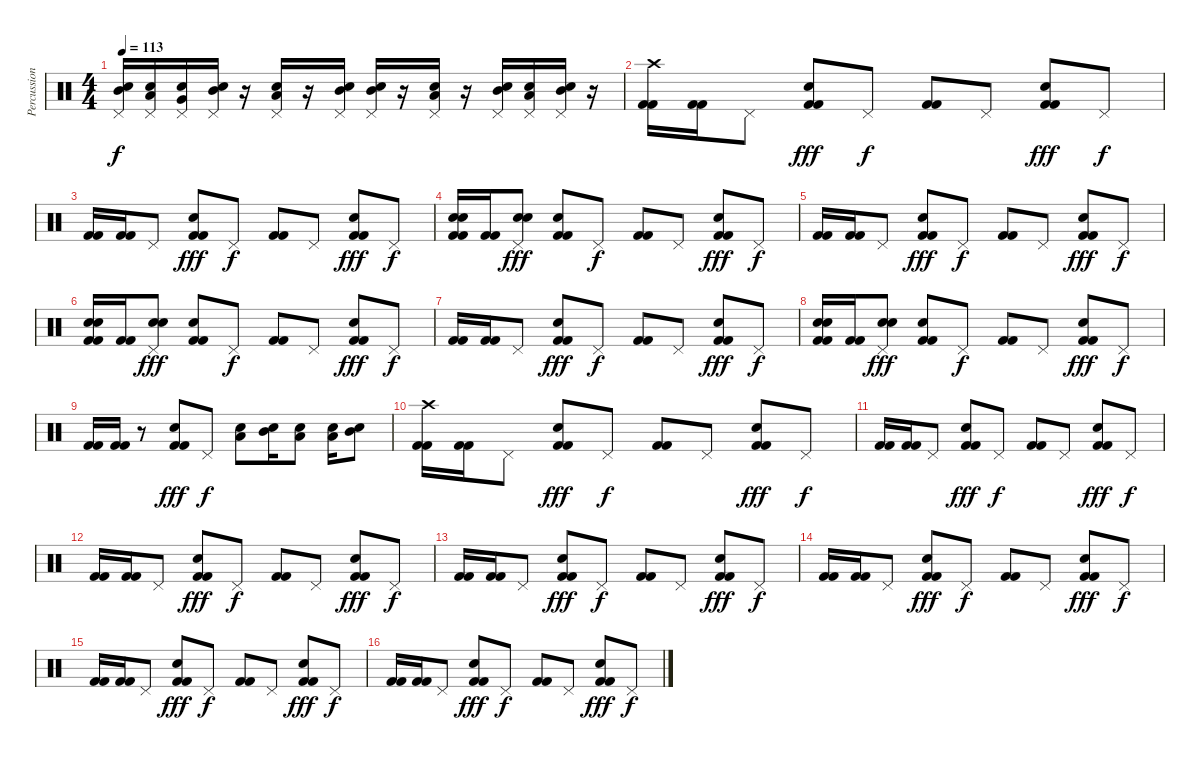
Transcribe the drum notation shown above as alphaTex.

\track ("Percussion" "Percussion") {instrument percussion}
\staff {score}
\articulation defaults
\ts (4 4)
\tempo 113
\clef neutral
\ks c
("Pedal Hi-Hat (hit)" "Electric Snare (hit)" "Mid Tom (hit)").16{dy f} ("Pedal Hi-Hat (hit)" "Electric Snare (hit)" "Low Tom (hit)").16 ("Pedal Hi-Hat (hit)" "Electric Snare (hit)" "Very Low Tom (hit)").16 ("Pedal Hi-Hat (hit)" "Electric Snare (hit)" "Mid Tom (hit)").16 r.16 ("Pedal Hi-Hat (hit)" "Electric Snare (hit)" "Low Tom (hit)").16 r.16 ("Pedal Hi-Hat (hit)" "Electric Snare (hit)" "Mid Tom (hit)").16 ("Pedal Hi-Hat (hit)" "Electric Snare (hit)" "Mid Tom (hit)").16 r.16 ("Pedal Hi-Hat (hit)" "Electric Snare (hit)" "Low Tom (hit)").16 r.16 ("Pedal Hi-Hat (hit)" "Electric Snare (hit)" "Mid Tom (hit)").16 ("Pedal Hi-Hat (hit)" "Electric Snare (hit)" "Low Tom (hit)").16 ("Pedal Hi-Hat (hit)" "Electric Snare (hit)" "Mid Tom (hit)").16 r.16 |
("Crash high (hit)" "Kick (hit) 2" "Kick (hit) 2").16 ("Kick (hit) 2" "Kick (hit) 2").16 "Pedal Hi-Hat (hit)".8 ("Electric Snare (hit)" "Kick (hit) 2" "Kick (hit) 2").8{dy fff} "Pedal Hi-Hat (hit)".8{dy f} ("Kick (hit) 2" "Kick (hit) 2").8 "Pedal Hi-Hat (hit)".8 ("Electric Snare (hit)" "Kick (hit) 2" "Kick (hit) 2").8{dy fff} "Pedal Hi-Hat (hit)".8{dy f} |
("Kick (hit) 2" "Kick (hit) 2").16 ("Kick (hit) 2" "Kick (hit) 2").16 "Pedal Hi-Hat (hit)".8 ("Electric Snare (hit)" "Kick (hit) 2" "Kick (hit) 2").8{dy fff} "Pedal Hi-Hat (hit)".8{dy f} ("Kick (hit) 2" "Kick (hit) 2").8 "Pedal Hi-Hat (hit)".8 ("Electric Snare (hit)" "Kick (hit) 2" "Kick (hit) 2").8{dy fff} "Pedal Hi-Hat (hit)".8{dy f} |
("Hand Clap (hit)" "Kick (hit) 2" "Kick (hit) 2" "Hand Clap (hit)").16 ("Kick (hit) 2" "Kick (hit) 2").16 ("Pedal Hi-Hat (hit)" "Hand Clap (hit)" "Hand Clap (hit)").8{dy fff} ("Electric Snare (hit)" "Kick (hit) 2" "Kick (hit) 2").8 "Pedal Hi-Hat (hit)".8{dy f} ("Kick (hit) 2" "Kick (hit) 2").8 "Pedal Hi-Hat (hit)".8 ("Electric Snare (hit)" "Kick (hit) 2" "Kick (hit) 2").8{dy fff} "Pedal Hi-Hat (hit)".8{dy f} |
("Kick (hit) 2" "Kick (hit) 2").16 ("Kick (hit) 2" "Kick (hit) 2").16 "Pedal Hi-Hat (hit)".8 ("Electric Snare (hit)" "Kick (hit) 2" "Kick (hit) 2").8{dy fff} "Pedal Hi-Hat (hit)".8{dy f} ("Kick (hit) 2" "Kick (hit) 2").8 "Pedal Hi-Hat (hit)".8 ("Electric Snare (hit)" "Kick (hit) 2" "Kick (hit) 2").8{dy fff} "Pedal Hi-Hat (hit)".8{dy f} |
("Hand Clap (hit)" "Kick (hit) 2" "Kick (hit) 2" "Hand Clap (hit)").16 ("Kick (hit) 2" "Kick (hit) 2").16 ("Pedal Hi-Hat (hit)" "Hand Clap (hit)" "Hand Clap (hit)").8{dy fff} ("Electric Snare (hit)" "Kick (hit) 2" "Kick (hit) 2").8 "Pedal Hi-Hat (hit)".8{dy f} ("Kick (hit) 2" "Kick (hit) 2").8 "Pedal Hi-Hat (hit)".8 ("Electric Snare (hit)" "Kick (hit) 2" "Kick (hit) 2").8{dy fff} "Pedal Hi-Hat (hit)".8{dy f} |
("Kick (hit) 2" "Kick (hit) 2").16 ("Kick (hit) 2" "Kick (hit) 2").16 "Pedal Hi-Hat (hit)".8 ("Electric Snare (hit)" "Kick (hit) 2" "Kick (hit) 2").8{dy fff} "Pedal Hi-Hat (hit)".8{dy f} ("Kick (hit) 2" "Kick (hit) 2").8 "Pedal Hi-Hat (hit)".8 ("Electric Snare (hit)" "Kick (hit) 2" "Kick (hit) 2").8{dy fff} "Pedal Hi-Hat (hit)".8{dy f} |
("Hand Clap (hit)" "Kick (hit) 2" "Kick (hit) 2" "Hand Clap (hit)").16 ("Kick (hit) 2" "Kick (hit) 2").16 ("Pedal Hi-Hat (hit)" "Hand Clap (hit)" "Hand Clap (hit)").8{dy fff} ("Electric Snare (hit)" "Kick (hit) 2" "Kick (hit) 2").8 "Pedal Hi-Hat (hit)".8{dy f} ("Kick (hit) 2" "Kick (hit) 2").8 "Pedal Hi-Hat (hit)".8 ("Electric Snare (hit)" "Kick (hit) 2" "Kick (hit) 2").8{dy fff} "Pedal Hi-Hat (hit)".8{dy f} |
("Kick (hit) 2" "Kick (hit) 2").16 ("Kick (hit) 2" "Kick (hit) 2").16 r.8 ("Electric Snare (hit)" "Kick (hit) 2" "Kick (hit) 2").8{dy fff} "Pedal Hi-Hat (hit)".8{dy f} ("Electric Snare (hit)" "Low Tom (hit)").8 ("Electric Snare (hit)" "Mid Tom (hit)").16 ("Electric Snare (hit)" "Low Tom (hit)").8 ("Electric Snare (hit)" "Low Tom (hit)").16 ("Electric Snare (hit)" "Mid Tom (hit)").8 |
("Crash high (hit)" "Kick (hit) 2" "Kick (hit) 2").16 ("Kick (hit) 2" "Kick (hit) 2").16 "Pedal Hi-Hat (hit)".8 ("Electric Snare (hit)" "Kick (hit) 2" "Kick (hit) 2").8{dy fff} "Pedal Hi-Hat (hit)".8{dy f} ("Kick (hit) 2" "Kick (hit) 2").8 "Pedal Hi-Hat (hit)".8 ("Electric Snare (hit)" "Kick (hit) 2" "Kick (hit) 2").8{dy fff} "Pedal Hi-Hat (hit)".8{dy f} |
("Kick (hit) 2" "Kick (hit) 2").16 ("Kick (hit) 2" "Kick (hit) 2").16 "Pedal Hi-Hat (hit)".8 ("Electric Snare (hit)" "Kick (hit) 2" "Kick (hit) 2").8{dy fff} "Pedal Hi-Hat (hit)".8{dy f} ("Kick (hit) 2" "Kick (hit) 2").8 "Pedal Hi-Hat (hit)".8 ("Electric Snare (hit)" "Kick (hit) 2" "Kick (hit) 2").8{dy fff} "Pedal Hi-Hat (hit)".8{dy f} |
("Kick (hit) 2" "Kick (hit) 2").16 ("Kick (hit) 2" "Kick (hit) 2").16 "Pedal Hi-Hat (hit)".8 ("Electric Snare (hit)" "Kick (hit) 2" "Kick (hit) 2").8{dy fff} "Pedal Hi-Hat (hit)".8{dy f} ("Kick (hit) 2" "Kick (hit) 2").8 "Pedal Hi-Hat (hit)".8 ("Electric Snare (hit)" "Kick (hit) 2" "Kick (hit) 2").8{dy fff} "Pedal Hi-Hat (hit)".8{dy f} |
("Kick (hit) 2" "Kick (hit) 2").16 ("Kick (hit) 2" "Kick (hit) 2").16 "Pedal Hi-Hat (hit)".8 ("Electric Snare (hit)" "Kick (hit) 2" "Kick (hit) 2").8{dy fff} "Pedal Hi-Hat (hit)".8{dy f} ("Kick (hit) 2" "Kick (hit) 2").8 "Pedal Hi-Hat (hit)".8 ("Electric Snare (hit)" "Kick (hit) 2" "Kick (hit) 2").8{dy fff} "Pedal Hi-Hat (hit)".8{dy f} |
("Kick (hit) 2" "Kick (hit) 2").16 ("Kick (hit) 2" "Kick (hit) 2").16 "Pedal Hi-Hat (hit)".8 ("Electric Snare (hit)" "Kick (hit) 2" "Kick (hit) 2").8{dy fff} "Pedal Hi-Hat (hit)".8{dy f} ("Kick (hit) 2" "Kick (hit) 2").8 "Pedal Hi-Hat (hit)".8 ("Electric Snare (hit)" "Kick (hit) 2" "Kick (hit) 2").8{dy fff} "Pedal Hi-Hat (hit)".8{dy f} |
("Kick (hit) 2" "Kick (hit) 2").16 ("Kick (hit) 2" "Kick (hit) 2").16 "Pedal Hi-Hat (hit)".8 ("Electric Snare (hit)" "Kick (hit) 2" "Kick (hit) 2").8{dy fff} "Pedal Hi-Hat (hit)".8{dy f} ("Kick (hit) 2" "Kick (hit) 2").8 "Pedal Hi-Hat (hit)".8 ("Electric Snare (hit)" "Kick (hit) 2" "Kick (hit) 2").8{dy fff} "Pedal Hi-Hat (hit)".8{dy f} |
("Kick (hit) 2" "Kick (hit) 2").16 ("Kick (hit) 2" "Kick (hit) 2").16 "Pedal Hi-Hat (hit)".8 ("Electric Snare (hit)" "Kick (hit) 2" "Kick (hit) 2").8{dy fff} "Pedal Hi-Hat (hit)".8{dy f} ("Kick (hit) 2" "Kick (hit) 2").8 "Pedal Hi-Hat (hit)".8 ("Electric Snare (hit)" "Kick (hit) 2" "Kick (hit) 2").8{dy fff} "Pedal Hi-Hat (hit)".8{dy f}
